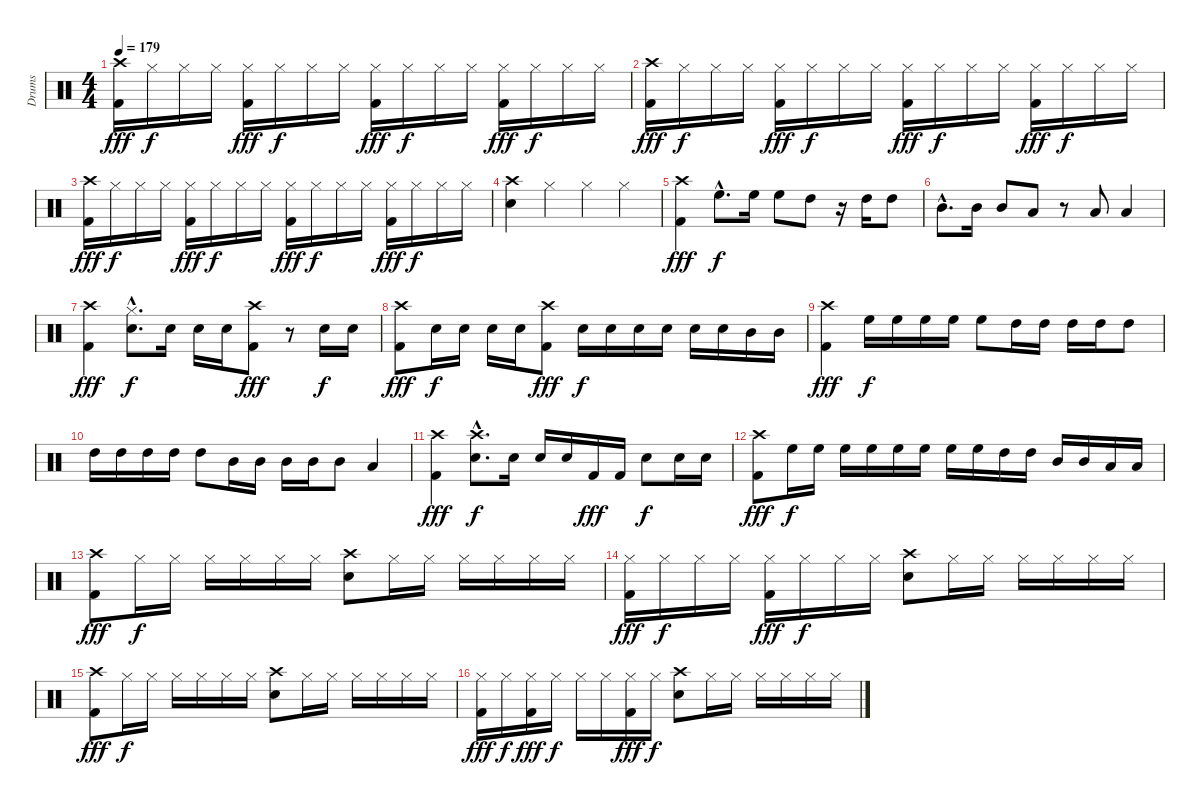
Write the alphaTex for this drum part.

\track ("Drums" "Drums") {instrument percussion}
\staff {score}
\articulation defaults
\ts (4 4)
\tempo 179
\clef neutral
\ks c
("Crash high (hit)" "Kick (hit) 2").16{dy fff} "Hi-Hat (closed)".16{dy f} "Hi-Hat (closed)".16 "Hi-Hat (closed)".16 ("Hi-Hat (closed)" "Kick (hit) 2").16{dy fff} "Hi-Hat (closed)".16{dy f} "Hi-Hat (closed)".16 "Hi-Hat (closed)".16 ("Hi-Hat (closed)" "Kick (hit) 2").16{dy fff} "Hi-Hat (closed)".16{dy f} "Hi-Hat (closed)".16 "Hi-Hat (closed)".16 ("Hi-Hat (closed)" "Kick (hit) 2").16{dy fff} "Hi-Hat (closed)".16{dy f} "Hi-Hat (closed)".16 "Hi-Hat (closed)".16 |
("Crash high (hit)" "Kick (hit) 2").16{dy fff} "Hi-Hat (closed)".16{dy f} "Hi-Hat (closed)".16 "Hi-Hat (closed)".16 ("Hi-Hat (closed)" "Kick (hit) 2").16{dy fff} "Hi-Hat (closed)".16{dy f} "Hi-Hat (closed)".16 "Hi-Hat (closed)".16 ("Hi-Hat (closed)" "Kick (hit) 2").16{dy fff} "Hi-Hat (closed)".16{dy f} "Hi-Hat (closed)".16 "Hi-Hat (closed)".16 ("Hi-Hat (closed)" "Kick (hit) 2").16{dy fff} "Hi-Hat (closed)".16{dy f} "Hi-Hat (closed)".16 "Hi-Hat (closed)".16 |
("Crash high (hit)" "Kick (hit) 2").16{dy fff} "Hi-Hat (closed)".16{dy f} "Hi-Hat (closed)".16 "Hi-Hat (closed)".16 ("Hi-Hat (closed)" "Kick (hit) 2").16{dy fff} "Hi-Hat (closed)".16{dy f} "Hi-Hat (closed)".16 "Hi-Hat (closed)".16 ("Hi-Hat (closed)" "Kick (hit) 2").16{dy fff} "Hi-Hat (closed)".16{dy f} "Hi-Hat (closed)".16 "Hi-Hat (closed)".16 ("Hi-Hat (closed)" "Kick (hit) 2").16{dy fff} "Hi-Hat (closed)".16{dy f} "Hi-Hat (closed)".16 "Hi-Hat (closed)".16 |
("Crash high (hit)" "Electric Snare (hit)").4 "Hi-Hat (closed)".4 "Hi-Hat (closed)".4 "Hi-Hat (closed)".4 |
("Crash high (hit)" "Kick (hit) 2").4{dy fff} "High Floor Tom (hit)"{hac}.8{d dy f} "High Floor Tom (hit)".16 "High Floor Tom (hit)".8 "High Tom (hit)".8 r.16 "High Tom (hit)".16 "High Tom (hit)".8 |
"Mid Tom (hit)"{hac}.8{d} "Mid Tom (hit)".16 "Mid Tom (hit)".8 "Low Tom (hit)".8 r.8 "Low Tom (hit)".8 "Low Tom (hit)".4 |
("Crash high (hit)" "Kick (hit) 2").4{dy fff} ("Hi-Hat (closed)"{hac} "Electric Snare (hit)"{hac}).8{d dy f} "Electric Snare (hit)".16 "Electric Snare (hit)".16 "Electric Snare (hit)".16 ("Crash high (hit)" "Kick (hit) 2").8{dy fff} r.8 "Electric Snare (hit)".16{dy f} "Electric Snare (hit)".16 |
("Crash high (hit)" "Kick (hit) 2").8{dy fff} "Electric Snare (hit)".16{dy f} "Electric Snare (hit)".16 "Electric Snare (hit)".16 "Electric Snare (hit)".16 ("Crash high (hit)" "Kick (hit) 2").8{dy fff} "Electric Snare (hit)".16{dy f} "Electric Snare (hit)".16 "Electric Snare (hit)".16 "Electric Snare (hit)".16 "Electric Snare (hit)".16 "Electric Snare (hit)".16 "Mid Tom (hit)".16 "Mid Tom (hit)".16 |
("Crash high (hit)" "Kick (hit) 2").4{dy fff} "High Floor Tom (hit)".16{dy f} "High Floor Tom (hit)".16 "High Floor Tom (hit)".16 "High Floor Tom (hit)".16 "High Floor Tom (hit)".8 "High Tom (hit)".16 "High Tom (hit)".16 "High Tom (hit)".16 "High Tom (hit)".16 "High Tom (hit)".8 |
"High Tom (hit)".16 "High Tom (hit)".16 "High Tom (hit)".16 "High Tom (hit)".16 "High Tom (hit)".8 "Mid Tom (hit)".16 "Mid Tom (hit)".16 "Mid Tom (hit)".16 "Mid Tom (hit)".16 "Mid Tom (hit)".8 "Low Tom (hit)".4 |
("Crash high (hit)" "Kick (hit) 2").4{dy fff} ("Crash high (hit)"{hac} "Electric Snare (hit)"{hac}).8{d dy f} "Electric Snare (hit)".16 "Electric Snare (hit)".16 "Electric Snare (hit)".16 "Kick (hit) 2".16{dy fff} "Kick (hit) 2".16 "Electric Snare (hit)".8{dy f} "Electric Snare (hit)".16 "Electric Snare (hit)".16 |
("Crash high (hit)" "Kick (hit) 2").8{dy fff} "High Floor Tom (hit)".16{dy f} "High Floor Tom (hit)".16 "High Floor Tom (hit)".16 "High Floor Tom (hit)".16 "High Floor Tom (hit)".16 "High Floor Tom (hit)".16 "High Floor Tom (hit)".16 "High Floor Tom (hit)".16 "High Tom (hit)".16 "High Tom (hit)".16 "Mid Tom (hit)".16 "Mid Tom (hit)".16 "Low Tom (hit)".16 "Low Tom (hit)".16 |
("Crash high (hit)" "Kick (hit) 2").8{dy fff} "Hi-Hat (closed)".16{dy f} "Hi-Hat (closed)".16 "Hi-Hat (closed)".16 "Hi-Hat (closed)".16 "Hi-Hat (closed)".16 "Hi-Hat (closed)".16 ("Crash high (hit)" "Electric Snare (hit)").8 "Hi-Hat (closed)".16 "Hi-Hat (closed)".16 "Hi-Hat (closed)".16 "Hi-Hat (closed)".16 "Hi-Hat (closed)".16 "Hi-Hat (closed)".16 |
("Hi-Hat (closed)" "Kick (hit) 2").16{dy fff} "Hi-Hat (closed)".16{dy f} "Hi-Hat (closed)".16 "Hi-Hat (closed)".16 ("Hi-Hat (closed)" "Kick (hit) 2").16{dy fff} "Hi-Hat (closed)".16{dy f} "Hi-Hat (closed)".16 "Hi-Hat (closed)".16 ("Crash high (hit)" "Electric Snare (hit)").8 "Hi-Hat (closed)".16 "Hi-Hat (closed)".16 "Hi-Hat (closed)".16 "Hi-Hat (closed)".16 "Hi-Hat (closed)".16 "Hi-Hat (closed)".16 |
("Crash high (hit)" "Kick (hit) 2").8{dy fff} "Hi-Hat (closed)".16{dy f} "Hi-Hat (closed)".16 "Hi-Hat (closed)".16 "Hi-Hat (closed)".16 "Hi-Hat (closed)".16 "Hi-Hat (closed)".16 ("Crash high (hit)" "Electric Snare (hit)").8 "Hi-Hat (closed)".16 "Hi-Hat (closed)".16 "Hi-Hat (closed)".16 "Hi-Hat (closed)".16 "Hi-Hat (closed)".16 "Hi-Hat (closed)".16 |
("Hi-Hat (closed)" "Kick (hit) 2").16{dy fff} "Hi-Hat (closed)".16{dy f} ("Hi-Hat (closed)" "Kick (hit) 2").16{dy fff} "Hi-Hat (closed)".16{dy f} "Hi-Hat (closed)".16 "Hi-Hat (closed)".16 ("Hi-Hat (closed)" "Kick (hit) 2").16{dy fff} "Hi-Hat (closed)".16{dy f} ("Crash high (hit)" "Electric Snare (hit)").8 "Hi-Hat (closed)".16 "Hi-Hat (closed)".16 "Hi-Hat (closed)".16 "Hi-Hat (closed)".16 "Hi-Hat (closed)".16 "Hi-Hat (closed)".16
